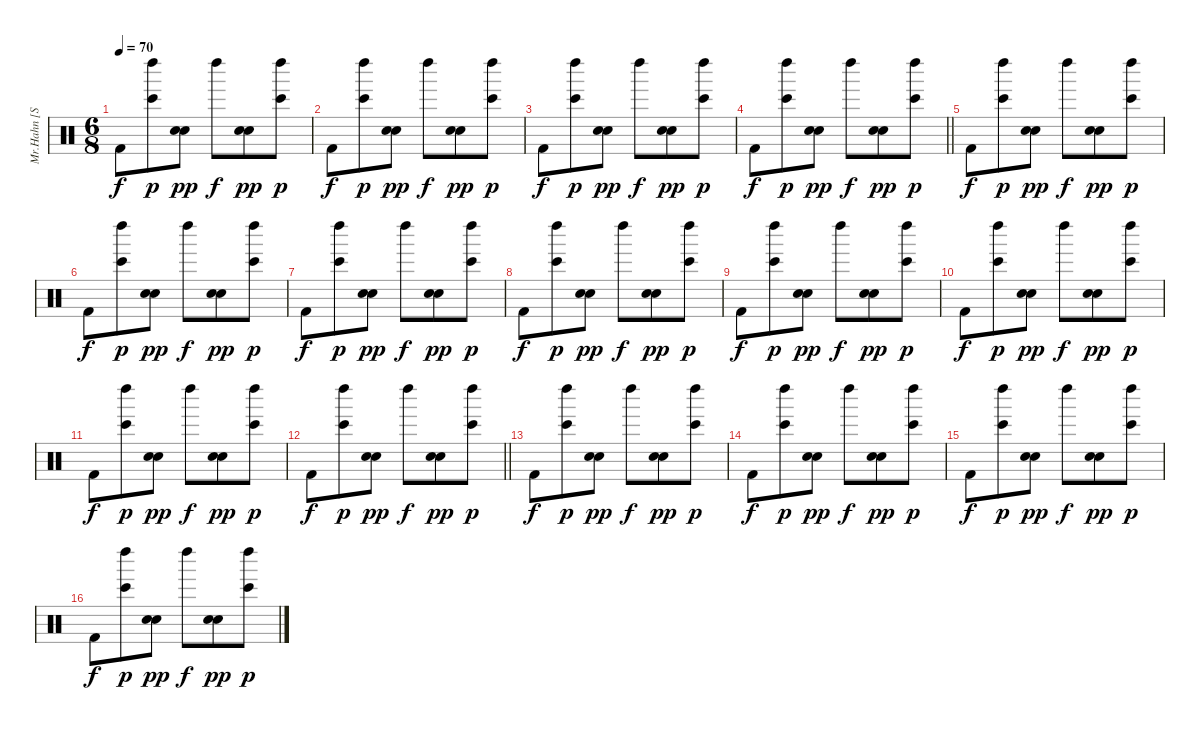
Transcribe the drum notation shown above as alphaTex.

\track ("Mr.Hahn [Sampler 4 Digital Drums]" "Mr.Hahn [S") {instrument percussion}
\staff {score}
\articulation defaults
\ts (6 8)
\tempo 70
\clef neutral
\ks c "Kick (hit) 2".8{dy f}
("Left Maraca (hit)" "Bongo High (hit)").8{dy p} ("Snare (hit) 2" "Electric Snare (hit)").8{dy pp} "Left Maraca (hit)".8{dy f} ("Snare (hit) 2" "Electric Snare (hit)").8{dy pp} ("Left Maraca (hit)" "Bongo High (hit)").8{dy p} |
"Kick (hit) 2".8{dy f} ("Left Maraca (hit)" "Bongo High (hit)").8{dy p} ("Snare (hit) 2" "Electric Snare (hit)").8{dy pp} "Left Maraca (hit)".8{dy f} ("Snare (hit) 2" "Electric Snare (hit)").8{dy pp} ("Left Maraca (hit)" "Bongo High (hit)").8{dy p} |
"Kick (hit) 2".8{dy f} ("Left Maraca (hit)" "Bongo High (hit)").8{dy p} ("Snare (hit) 2" "Electric Snare (hit)").8{dy pp} "Left Maraca (hit)".8{dy f} ("Snare (hit) 2" "Electric Snare (hit)").8{dy pp} ("Left Maraca (hit)" "Bongo High (hit)").8{dy p} |
\barLineRight lightlight "Kick (hit) 2".8{dy f}
("Left Maraca (hit)" "Bongo High (hit)").8{dy p} ("Snare (hit) 2" "Electric Snare (hit)").8{dy pp} "Left Maraca (hit)".8{dy f} ("Snare (hit) 2" "Electric Snare (hit)").8{dy pp} ("Left Maraca (hit)" "Bongo High (hit)").8{dy p} |
"Kick (hit) 2".8{dy f} ("Left Maraca (hit)" "Bongo High (hit)").8{dy p} ("Snare (hit) 2" "Electric Snare (hit)").8{dy pp} "Left Maraca (hit)".8{dy f} ("Snare (hit) 2" "Electric Snare (hit)").8{dy pp} ("Left Maraca (hit)" "Bongo High (hit)").8{dy p} |
"Kick (hit) 2".8{dy f} ("Left Maraca (hit)" "Bongo High (hit)").8{dy p} ("Snare (hit) 2" "Electric Snare (hit)").8{dy pp} "Left Maraca (hit)".8{dy f} ("Snare (hit) 2" "Electric Snare (hit)").8{dy pp} ("Left Maraca (hit)" "Bongo High (hit)").8{dy p} |
"Kick (hit) 2".8{dy f} ("Left Maraca (hit)" "Bongo High (hit)").8{dy p} ("Snare (hit) 2" "Electric Snare (hit)").8{dy pp} "Left Maraca (hit)".8{dy f} ("Snare (hit) 2" "Electric Snare (hit)").8{dy pp} ("Left Maraca (hit)" "Bongo High (hit)").8{dy p} |
"Kick (hit) 2".8{dy f} ("Left Maraca (hit)" "Bongo High (hit)").8{dy p} ("Snare (hit) 2" "Electric Snare (hit)").8{dy pp} "Left Maraca (hit)".8{dy f} ("Snare (hit) 2" "Electric Snare (hit)").8{dy pp} ("Left Maraca (hit)" "Bongo High (hit)").8{dy p} |
"Kick (hit) 2".8{dy f} ("Left Maraca (hit)" "Bongo High (hit)").8{dy p} ("Snare (hit) 2" "Electric Snare (hit)").8{dy pp} "Left Maraca (hit)".8{dy f} ("Snare (hit) 2" "Electric Snare (hit)").8{dy pp} ("Left Maraca (hit)" "Bongo High (hit)").8{dy p} |
"Kick (hit) 2".8{dy f} ("Left Maraca (hit)" "Bongo High (hit)").8{dy p} ("Snare (hit) 2" "Electric Snare (hit)").8{dy pp} "Left Maraca (hit)".8{dy f} ("Snare (hit) 2" "Electric Snare (hit)").8{dy pp} ("Left Maraca (hit)" "Bongo High (hit)").8{dy p} |
"Kick (hit) 2".8{dy f} ("Left Maraca (hit)" "Bongo High (hit)").8{dy p} ("Snare (hit) 2" "Electric Snare (hit)").8{dy pp} "Left Maraca (hit)".8{dy f} ("Snare (hit) 2" "Electric Snare (hit)").8{dy pp} ("Left Maraca (hit)" "Bongo High (hit)").8{dy p} |
\barLineRight lightlight "Kick (hit) 2".8{dy f}
("Left Maraca (hit)" "Bongo High (hit)").8{dy p} ("Snare (hit) 2" "Electric Snare (hit)").8{dy pp} "Left Maraca (hit)".8{dy f} ("Snare (hit) 2" "Electric Snare (hit)").8{dy pp} ("Left Maraca (hit)" "Bongo High (hit)").8{dy p} |
"Kick (hit) 2".8{dy f} ("Left Maraca (hit)" "Bongo High (hit)").8{dy p} ("Snare (hit) 2" "Electric Snare (hit)").8{dy pp} "Left Maraca (hit)".8{dy f} ("Snare (hit) 2" "Electric Snare (hit)").8{dy pp} ("Left Maraca (hit)" "Bongo High (hit)").8{dy p} |
"Kick (hit) 2".8{dy f} ("Left Maraca (hit)" "Bongo High (hit)").8{dy p} ("Snare (hit) 2" "Electric Snare (hit)").8{dy pp} "Left Maraca (hit)".8{dy f} ("Snare (hit) 2" "Electric Snare (hit)").8{dy pp} ("Left Maraca (hit)" "Bongo High (hit)").8{dy p} |
"Kick (hit) 2".8{dy f} ("Left Maraca (hit)" "Bongo High (hit)").8{dy p} ("Snare (hit) 2" "Electric Snare (hit)").8{dy pp} "Left Maraca (hit)".8{dy f} ("Snare (hit) 2" "Electric Snare (hit)").8{dy pp} ("Left Maraca (hit)" "Bongo High (hit)").8{dy p} |
"Kick (hit) 2".8{dy f} ("Left Maraca (hit)" "Bongo High (hit)").8{dy p} ("Snare (hit) 2" "Electric Snare (hit)").8{dy pp} "Left Maraca (hit)".8{dy f} ("Snare (hit) 2" "Electric Snare (hit)").8{dy pp} ("Left Maraca (hit)" "Bongo High (hit)").8{dy p}
